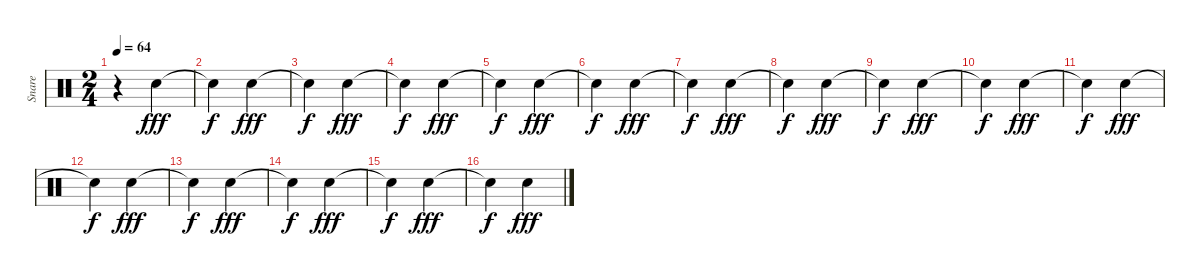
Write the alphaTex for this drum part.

\track ("Snare" "Snare") {instrument percussion}
\staff {score}
\articulation defaults
\ts (2 4)
\tempo 64
\clef neutral
\ks c
r.4{dy fff} "Snare (hit) 2".4 |
"Snare (hit)"{t}.4{dy f} "Snare (hit) 2".4{dy fff} |
"Snare (hit)"{t}.4{dy f} "Snare (hit) 2".4{dy fff} |
"Snare (hit)"{t}.4{dy f} "Snare (hit) 2".4{dy fff} |
"Snare (hit)"{t}.4{dy f} "Snare (hit) 2".4{dy fff} |
"Snare (hit)"{t}.4{dy f} "Snare (hit) 2".4{dy fff} |
"Snare (hit)"{t}.4{dy f} "Snare (hit) 2".4{dy fff} |
"Snare (hit)"{t}.4{dy f} "Snare (hit) 2".4{dy fff} |
"Snare (hit)"{t}.4{dy f} "Snare (hit) 2".4{dy fff} |
"Snare (hit)"{t}.4{dy f} "Snare (hit) 2".4{dy fff} |
"Snare (hit)"{t}.4{dy f} "Snare (hit) 2".4{dy fff} |
"Snare (hit)"{t}.4{dy f} "Snare (hit) 2".4{dy fff} |
"Snare (hit)"{t}.4{dy f} "Snare (hit) 2".4{dy fff} |
"Snare (hit)"{t}.4{dy f} "Snare (hit) 2".4{dy fff} |
"Snare (hit)"{t}.4{dy f} "Snare (hit) 2".4{dy fff} |
"Snare (hit)"{t}.4{dy f} "Snare (hit) 2".4{dy fff}
